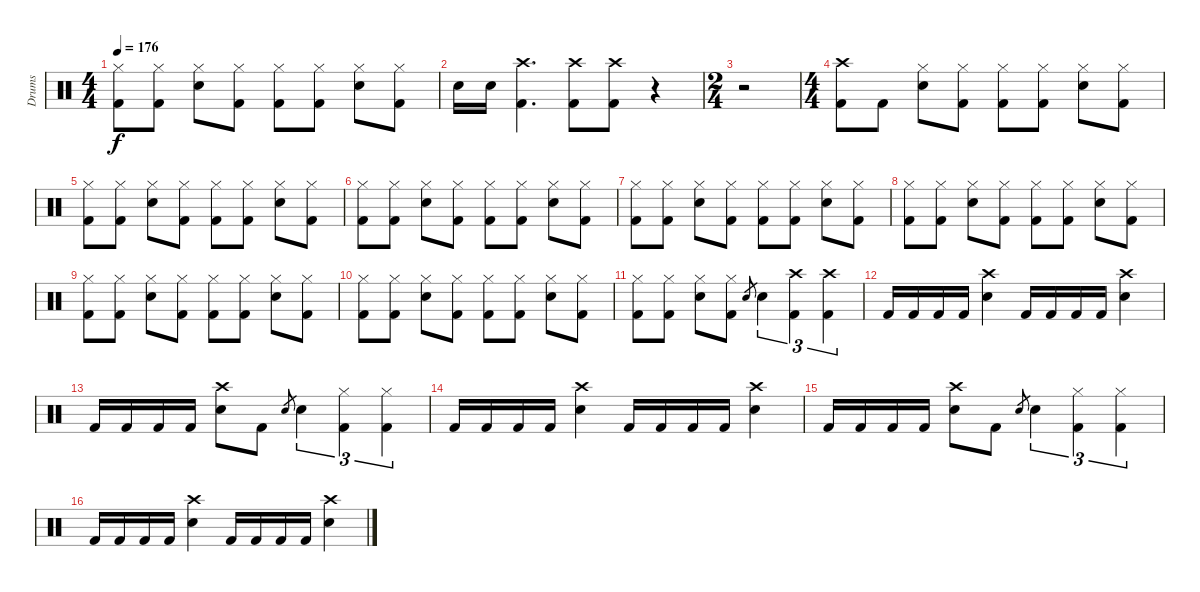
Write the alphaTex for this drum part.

\track ("Drums" "Drums") {instrument percussion}
\staff {score}
\articulation defaults
\ts (4 4)
\tempo 176
\clef neutral
\ks c
("Hi-Hat (closed)" "Kick (hit) 2").8{dy f} ("Hi-Hat (closed)" "Kick (hit) 2").8 ("Hi-Hat (closed)" "Electric Snare (hit)").8 ("Hi-Hat (closed)" "Kick (hit) 2").8 ("Hi-Hat (closed)" "Kick (hit) 2").8 ("Hi-Hat (closed)" "Kick (hit) 2").8 ("Hi-Hat (closed)" "Electric Snare (hit)").8 ("Hi-Hat (closed)" "Kick (hit) 2").8 |
"Electric Snare (hit)".16 "Electric Snare (hit)".16 ("Crash high (hit)" "Kick (hit) 2").4{d} ("Crash high (hit)" "Kick (hit) 2").8 ("Crash high (hit)" "Kick (hit) 2").8 r.4 |
\ts (2 4)
r.2 |
\ts (4 4)
("Crash high (hit)" "Kick (hit) 2").8 "Kick (hit) 2".8 ("Hi-Hat (closed)" "Electric Snare (hit)").8 ("Hi-Hat (closed)" "Kick (hit) 2").8 ("Hi-Hat (closed)" "Kick (hit) 2").8 ("Hi-Hat (closed)" "Kick (hit) 2").8 ("Hi-Hat (closed)" "Electric Snare (hit)").8 ("Hi-Hat (closed)" "Kick (hit) 2").8 |
("Hi-Hat (closed)" "Kick (hit) 2").8 ("Hi-Hat (closed)" "Kick (hit) 2").8 ("Hi-Hat (closed)" "Electric Snare (hit)").8 ("Hi-Hat (closed)" "Kick (hit) 2").8 ("Hi-Hat (closed)" "Kick (hit) 2").8 ("Hi-Hat (closed)" "Kick (hit) 2").8 ("Hi-Hat (closed)" "Electric Snare (hit)").8 ("Hi-Hat (closed)" "Kick (hit) 2").8 |
("Hi-Hat (closed)" "Kick (hit) 2").8 ("Hi-Hat (closed)" "Kick (hit) 2").8 ("Hi-Hat (closed)" "Electric Snare (hit)").8 ("Hi-Hat (closed)" "Kick (hit) 2").8 ("Hi-Hat (closed)" "Kick (hit) 2").8 ("Hi-Hat (closed)" "Kick (hit) 2").8 ("Hi-Hat (closed)" "Electric Snare (hit)").8 ("Hi-Hat (closed)" "Kick (hit) 2").8 |
("Hi-Hat (closed)" "Kick (hit) 2").8 ("Hi-Hat (closed)" "Kick (hit) 2").8 ("Hi-Hat (closed)" "Electric Snare (hit)").8 ("Hi-Hat (closed)" "Kick (hit) 2").8 ("Hi-Hat (closed)" "Kick (hit) 2").8 ("Hi-Hat (closed)" "Kick (hit) 2").8 ("Hi-Hat (closed)" "Electric Snare (hit)").8 ("Hi-Hat (closed)" "Kick (hit) 2").8 |
("Hi-Hat (closed)" "Kick (hit) 2").8 ("Hi-Hat (closed)" "Kick (hit) 2").8 ("Hi-Hat (closed)" "Electric Snare (hit)").8 ("Hi-Hat (closed)" "Kick (hit) 2").8 ("Hi-Hat (closed)" "Kick (hit) 2").8 ("Hi-Hat (closed)" "Kick (hit) 2").8 ("Hi-Hat (closed)" "Electric Snare (hit)").8 ("Hi-Hat (closed)" "Kick (hit) 2").8 |
("Hi-Hat (closed)" "Kick (hit) 2").8 ("Hi-Hat (closed)" "Kick (hit) 2").8 ("Hi-Hat (closed)" "Electric Snare (hit)").8 ("Hi-Hat (closed)" "Kick (hit) 2").8 ("Hi-Hat (closed)" "Kick (hit) 2").8 ("Hi-Hat (closed)" "Kick (hit) 2").8 ("Hi-Hat (closed)" "Electric Snare (hit)").8 ("Hi-Hat (closed)" "Kick (hit) 2").8 |
("Hi-Hat (closed)" "Kick (hit) 2").8 ("Hi-Hat (closed)" "Kick (hit) 2").8 ("Hi-Hat (closed)" "Electric Snare (hit)").8 ("Hi-Hat (closed)" "Kick (hit) 2").8 ("Hi-Hat (closed)" "Kick (hit) 2").8 ("Hi-Hat (closed)" "Kick (hit) 2").8 ("Hi-Hat (closed)" "Electric Snare (hit)").8 ("Hi-Hat (closed)" "Kick (hit) 2").8 |
("Hi-Hat (closed)" "Kick (hit) 2").8 ("Hi-Hat (closed)" "Kick (hit) 2").8 ("Hi-Hat (closed)" "Electric Snare (hit)").8 ("Hi-Hat (closed)" "Kick (hit) 2").8 "Electric Snare (hit)".8{gr} "Electric Snare (hit)".4{tu (3 2)} ("Crash high (hit)" "Kick (hit) 2").4{tu (3 2)} ("Crash high (hit)" "Kick (hit) 2").4{tu (3 2)} |
"Kick (hit) 2".16 "Kick (hit) 2".16 "Kick (hit) 2".16 "Kick (hit) 2".16 ("Crash high (hit)" "Electric Snare (hit)").4 "Kick (hit) 2".16 "Kick (hit) 2".16 "Kick (hit) 2".16 "Kick (hit) 2".16 ("Crash high (hit)" "Electric Snare (hit)").4 |
"Kick (hit) 2".16 "Kick (hit) 2".16 "Kick (hit) 2".16 "Kick (hit) 2".16 ("Crash high (hit)" "Electric Snare (hit)").8 "Kick (hit) 2".8 "Electric Snare (hit)".8{gr} "Electric Snare (hit)".4{tu (3 2)} ("Hi-Hat (closed)" "Kick (hit) 2").4{tu (3 2)} ("Hi-Hat (closed)" "Kick (hit) 2").4{tu (3 2)} |
"Kick (hit) 2".16 "Kick (hit) 2".16 "Kick (hit) 2".16 "Kick (hit) 2".16 ("Crash high (hit)" "Electric Snare (hit)").4 "Kick (hit) 2".16 "Kick (hit) 2".16 "Kick (hit) 2".16 "Kick (hit) 2".16 ("Crash high (hit)" "Electric Snare (hit)").4 |
"Kick (hit) 2".16 "Kick (hit) 2".16 "Kick (hit) 2".16 "Kick (hit) 2".16 ("Crash high (hit)" "Electric Snare (hit)").8 "Kick (hit) 2".8 "Electric Snare (hit)".8{gr} "Electric Snare (hit)".4{tu (3 2)} ("Hi-Hat (closed)" "Kick (hit) 2").4{tu (3 2)} ("Hi-Hat (closed)" "Kick (hit) 2").4{tu (3 2)} |
"Kick (hit) 2".16 "Kick (hit) 2".16 "Kick (hit) 2".16 "Kick (hit) 2".16 ("Crash high (hit)" "Electric Snare (hit)").4 "Kick (hit) 2".16 "Kick (hit) 2".16 "Kick (hit) 2".16 "Kick (hit) 2".16 ("Crash high (hit)" "Electric Snare (hit)").4
